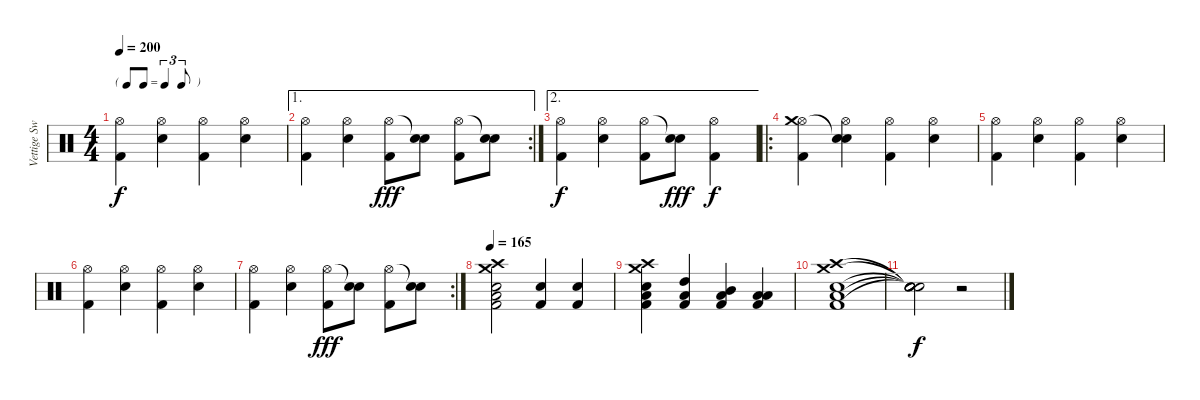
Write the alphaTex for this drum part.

\track ("Vettige Swa" "Vettige Sw") {instrument percussion}
\staff {score}
\articulation defaults
\ts (4 4)
\tf triplet8th
\tempo 200
\clef neutral
\ks c
("Hi-Hat (open)" "Kick (hit) 2").4{dy f} ("Hi-Hat (open)" "Electric Snare (hit)").4 ("Hi-Hat (open)" "Kick (hit) 2").4 ("Hi-Hat (open)" "Electric Snare (hit)").4 |
\ae 1
\rc 2
("Hi-Hat (open)" "Kick (hit) 2").4 ("Hi-Hat (open)" "Electric Snare (hit)").4 ("Hi-Hat (open)" "Kick (hit) 2").8{dy fff} ("Electric Snare (hit)"{t} "Electric Snare (hit)").8 ("Hi-Hat (open)" "Kick (hit) 2").8 ("Electric Snare (hit)"{t} "Electric Snare (hit)").8 |
\ae 2
("Hi-Hat (open)" "Kick (hit) 2").4{dy f} ("Hi-Hat (open)" "Electric Snare (hit)").4 ("Hi-Hat (open)" "Kick (hit) 2").8 ("Snare (hit)"{t} "Electric Snare (hit)").8{dy fff} ("Hi-Hat (open)" "Kick (hit) 2").4{dy f} |
\ro
("Hi-Hat (open)" "Kick (hit) 2" "Crash medium (hit)").4 ("Hi-Hat (open)" "Electric Snare (hit)" "Snare (hit)"{t}).4 ("Hi-Hat (open)" "Kick (hit) 2").4 ("Hi-Hat (open)" "Electric Snare (hit)").4 |
("Hi-Hat (open)" "Kick (hit) 2").4 ("Hi-Hat (open)" "Electric Snare (hit)").4 ("Hi-Hat (open)" "Kick (hit) 2").4 ("Hi-Hat (open)" "Electric Snare (hit)").4 |
("Hi-Hat (open)" "Kick (hit) 2").4 ("Hi-Hat (open)" "Electric Snare (hit)").4 ("Hi-Hat (open)" "Kick (hit) 2").4 ("Hi-Hat (open)" "Electric Snare (hit)").4 |
\rc 2
("Hi-Hat (open)" "Kick (hit) 2").4 ("Hi-Hat (open)" "Electric Snare (hit)").4 ("Hi-Hat (open)" "Kick (hit) 2").8{dy fff} ("Electric Snare (hit)"{t} "Electric Snare (hit)").8 ("Hi-Hat (open)" "Kick (hit) 2").8 ("Electric Snare (hit)"{t} "Electric Snare (hit)").8 |
\tempo 165
("Electric Snare (hit)" "Kick (hit) 2" "Crash medium (hit)" "Low Floor Tom (hit)" "Crash high (hit)").2 ("Electric Snare (hit)" "Kick (hit) 2").4 ("Electric Snare (hit)" "Kick (hit) 2").4 |
("Electric Snare (hit)" "Kick (hit) 2" "Crash medium (hit)" "Low Floor Tom (hit)" "Crash high (hit)").4 ("Kick (hit) 2" "Low Floor Tom (hit)" "High Tom (hit)").4 ("Kick (hit) 2" "Low Floor Tom (hit)" "Mid Tom (hit)").4 ("Kick (hit) 2" "Low Floor Tom (hit)" "Low Tom (hit)").4 |
("Electric Snare (hit)" "Kick (hit) 2" "Crash medium (hit)" "Low Floor Tom (hit)" "Crash high (hit)").1 |
("Snare (hit)"{t} "Snare (hit)"{t} "Snare (hit)"{t} "Snare (hit)"{t} "Snare (hit)"{t}).2{dy f} r.2
